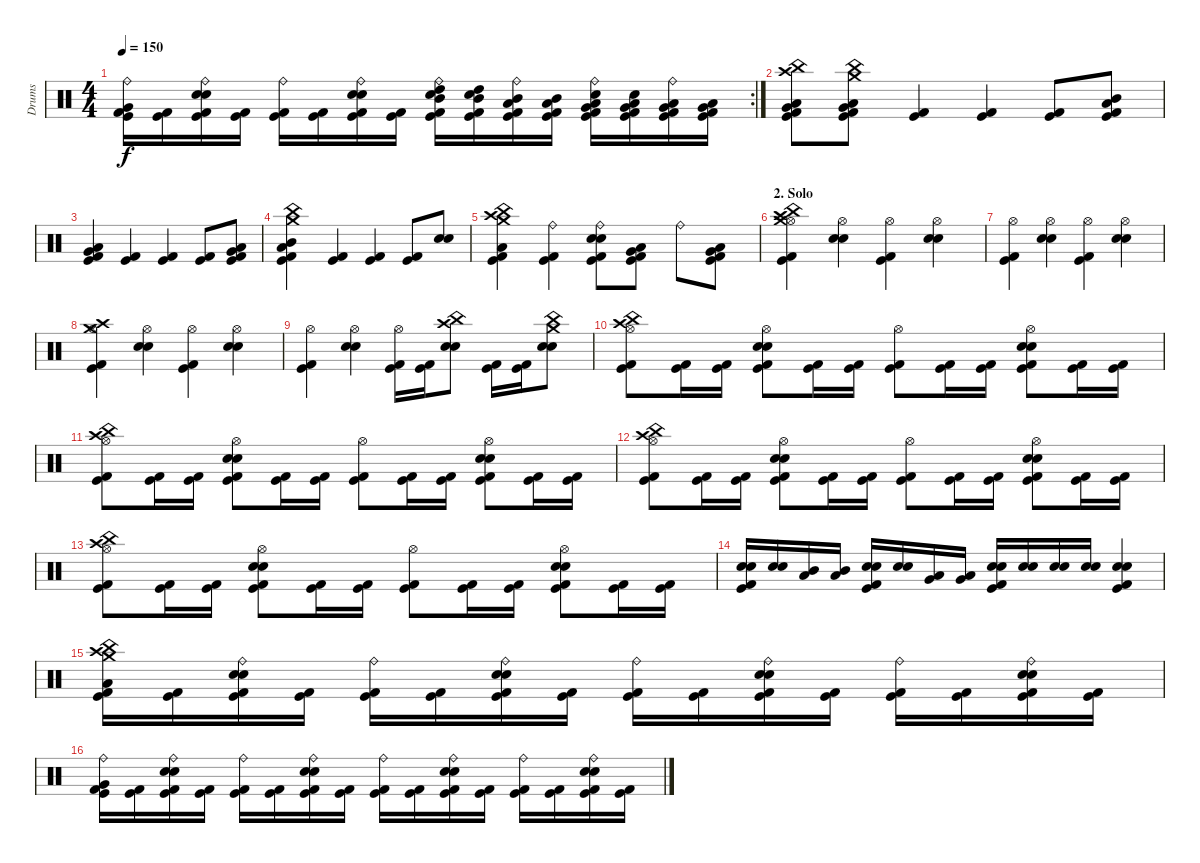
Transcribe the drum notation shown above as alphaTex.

\track ("Drums" "Drums") {instrument percussion}
\staff {score}
\articulation defaults
\rc 2
\ts (4 4)
\tempo 150
\clef neutral
\ks c
("Ride (bell)" "Very Low Tom (hit)" "Kick (hit) 2" "Kick (hit)").16{dy f} ("Kick (hit) 2" "Kick (hit)").16 ("Ride (bell)" "Snare (hit) 2" "Electric Snare (hit)" "Kick (hit) 2" "Kick (hit)").16 ("Kick (hit) 2" "Kick (hit)").16 ("Ride (bell)" "Kick (hit) 2" "Kick (hit)").16 ("Kick (hit) 2" "Kick (hit)").16 ("Ride (bell)" "Snare (hit) 2" "Electric Snare (hit)" "Kick (hit)" "Kick (hit) 2").16 ("Kick (hit) 2" "Kick (hit)").16 ("Electric Snare (hit)" "Ride (bell)" "High Tom (hit)" "Mid Tom (hit)" "Kick (hit) 2" "Kick (hit)").16 ("Electric Snare (hit)" "High Tom (hit)" "Mid Tom (hit)" "Kick (hit) 2" "Kick (hit)").16 ("Ride (bell)" "Mid Tom (hit)" "Low Tom (hit)" "Kick (hit) 2" "Kick (hit)").16 ("Mid Tom (hit)" "Low Tom (hit)" "Kick (hit) 2" "Kick (hit)").16 ("Snare (hit) 2" "Ride (bell)" "Low Tom (hit)" "Very Low Tom (hit)" "Kick (hit) 2" "Kick (hit)").16 ("Snare (hit) 2" "Low Tom (hit)" "Very Low Tom (hit)" "Kick (hit) 2" "Kick (hit)").16 ("Ride (bell)" "Very Low Tom (hit)" "Low Floor Tom (hit)" "Kick (hit)" "Kick (hit) 2").16 ("Very Low Tom (hit)" "Low Floor Tom (hit)" "Kick (hit) 2" "Kick (hit)").16 |
("Crash high (hit)" "China (hit)" "Low Tom (hit)" "Very Low Tom (hit)" "Kick (hit) 2" "Kick (hit)").8 ("Crash medium (hit)" "China (hit)" "Low Tom (hit)" "Very Low Tom (hit)" "Kick (hit) 2" "Kick (hit)").8 ("Kick (hit) 2" "Kick (hit)").4 ("Kick (hit) 2" "Kick (hit)").4 ("Kick (hit) 2" "Kick (hit)").8 ("Mid Tom (hit)" "Low Tom (hit)" "Kick (hit)" "Kick (hit) 2").8 |
("Very Low Tom (hit)" "Low Tom (hit)" "Kick (hit)" "Kick (hit) 2").4 ("Kick (hit) 2" "Kick (hit)").4 ("Kick (hit)" "Kick (hit) 2").4 ("Kick (hit) 2" "Kick (hit)").8 ("Very Low Tom (hit)" "Low Tom (hit)" "Kick (hit) 2" "Kick (hit)").8 |
("Crash medium (hit)" "China (hit)" "Mid Tom (hit)" "Low Tom (hit)" "Kick (hit)" "Kick (hit) 2").4 ("Kick (hit) 2" "Kick (hit)").4 ("Kick (hit) 2" "Kick (hit)").4 ("Kick (hit)" "Kick (hit) 2").8 ("Electric Snare (hit)" "Snare (hit) 2").8 |
("Crash high (hit)" "Crash medium (hit)" "China (hit)" "Low Tom (hit)" "Kick (hit) 2" "Kick (hit)").4 ("Ride (bell)" "Kick (hit)" "Kick (hit) 2").4 ("Ride (bell)" "Kick (hit) 2" "Snare (hit) 2" "Electric Snare (hit)" "Kick (hit)").8 ("Very Low Tom (hit)" "Low Tom (hit)" "Kick (hit) 2" "Kick (hit)").8 "Ride (bell)".8 ("Very Low Tom (hit)" "Low Tom (hit)" "Kick (hit) 2" "Kick (hit)").8 |
\section ("" "2. Solo")
("Crash high (hit)" "Hi-Hat (open)" "Crash medium (hit)" "China (hit)" "Kick (hit) 2" "Kick (hit)").4 ("Hi-Hat (open)" "Electric Snare (hit)" "Snare (hit) 2").4 ("Hi-Hat (open)" "Kick (hit) 2" "Kick (hit)").4 ("Hi-Hat (open)" "Electric Snare (hit)" "Snare (hit) 2").4 |
("Hi-Hat (open)" "Kick (hit)" "Kick (hit) 2").4 ("Hi-Hat (open)" "Electric Snare (hit)" "Snare (hit) 2").4 ("Hi-Hat (open)" "Kick (hit) 2" "Kick (hit)").4 ("Hi-Hat (open)" "Electric Snare (hit)" "Snare (hit) 2").4 |
("Crash high (hit)" "Hi-Hat (open)" "Crash medium (hit)" "Kick (hit)" "Kick (hit) 2").4 ("Hi-Hat (open)" "Electric Snare (hit)" "Snare (hit) 2").4 ("Hi-Hat (open)" "Kick (hit) 2" "Kick (hit)").4 ("Hi-Hat (open)" "Electric Snare (hit)" "Snare (hit) 2").4 |
("Hi-Hat (open)" "Kick (hit)" "Kick (hit) 2").4 ("Hi-Hat (open)" "Electric Snare (hit)" "Snare (hit) 2").4 ("Hi-Hat (open)" "Kick (hit)" "Kick (hit) 2").16 ("Kick (hit) 2" "Kick (hit)").16 ("China (hit)" "Crash high (hit)" "Electric Snare (hit)" "Snare (hit) 2").8 ("Kick (hit) 2" "Kick (hit)").16 ("Kick (hit) 2" "Kick (hit)").16 ("Crash medium (hit)" "China (hit)" "Electric Snare (hit)" "Snare (hit) 2").8 |
("Crash high (hit)" "Hi-Hat (open)" "China (hit)" "Kick (hit) 2" "Kick (hit)").8 ("Kick (hit) 2" "Kick (hit)").16 ("Kick (hit) 2" "Kick (hit)").16 ("Hi-Hat (open)" "Snare (hit) 2" "Electric Snare (hit)" "Kick (hit) 2" "Kick (hit)").8 ("Kick (hit) 2" "Kick (hit)").16 ("Kick (hit) 2" "Kick (hit)").16 ("Hi-Hat (open)" "Kick (hit) 2" "Kick (hit)").8 ("Kick (hit) 2" "Kick (hit)").16 ("Kick (hit) 2" "Kick (hit)").16 ("Hi-Hat (open)" "Electric Snare (hit)" "Snare (hit) 2" "Kick (hit) 2" "Kick (hit)").8 ("Kick (hit) 2" "Kick (hit)").16 ("Kick (hit) 2" "Kick (hit)").16 |
("Crash high (hit)" "Hi-Hat (open)" "China (hit)" "Kick (hit) 2" "Kick (hit)").8 ("Kick (hit) 2" "Kick (hit)").16 ("Kick (hit) 2" "Kick (hit)").16 ("Hi-Hat (open)" "Snare (hit) 2" "Electric Snare (hit)" "Kick (hit) 2" "Kick (hit)").8 ("Kick (hit) 2" "Kick (hit)").16 ("Kick (hit) 2" "Kick (hit)").16 ("Hi-Hat (open)" "Kick (hit) 2" "Kick (hit)").8 ("Kick (hit) 2" "Kick (hit)").16 ("Kick (hit) 2" "Kick (hit)").16 ("Hi-Hat (open)" "Electric Snare (hit)" "Snare (hit) 2" "Kick (hit) 2" "Kick (hit)").8 ("Kick (hit) 2" "Kick (hit)").16 ("Kick (hit) 2" "Kick (hit)").16 |
("Crash high (hit)" "Hi-Hat (open)" "China (hit)" "Kick (hit) 2" "Kick (hit)").8 ("Kick (hit) 2" "Kick (hit)").16 ("Kick (hit) 2" "Kick (hit)").16 ("Hi-Hat (open)" "Snare (hit) 2" "Electric Snare (hit)" "Kick (hit) 2" "Kick (hit)").8 ("Kick (hit) 2" "Kick (hit)").16 ("Kick (hit) 2" "Kick (hit)").16 ("Hi-Hat (open)" "Kick (hit) 2" "Kick (hit)").8 ("Kick (hit) 2" "Kick (hit)").16 ("Kick (hit) 2" "Kick (hit)").16 ("Hi-Hat (open)" "Electric Snare (hit)" "Snare (hit) 2" "Kick (hit) 2" "Kick (hit)").8 ("Kick (hit) 2" "Kick (hit)").16 ("Kick (hit) 2" "Kick (hit)").16 |
("Crash high (hit)" "Hi-Hat (open)" "China (hit)" "Kick (hit) 2" "Kick (hit)").8 ("Kick (hit) 2" "Kick (hit)").16 ("Kick (hit) 2" "Kick (hit)").16 ("Hi-Hat (open)" "Snare (hit) 2" "Electric Snare (hit)" "Kick (hit) 2" "Kick (hit)").8 ("Kick (hit) 2" "Kick (hit)").16 ("Kick (hit) 2" "Kick (hit)").16 ("Hi-Hat (open)" "Kick (hit) 2" "Kick (hit)").8 ("Kick (hit) 2" "Kick (hit)").16 ("Kick (hit) 2" "Kick (hit)").16 ("Hi-Hat (open)" "Electric Snare (hit)" "Snare (hit) 2" "Kick (hit) 2" "Kick (hit)").8 ("Kick (hit) 2" "Kick (hit)").16 ("Kick (hit) 2" "Kick (hit)").16 |
("Electric Snare (hit)" "Snare (hit) 2" "Kick (hit) 2" "Kick (hit)").16 ("Electric Snare (hit)" "Snare (hit) 2").16 ("Low Tom (hit)" "Mid Tom (hit)").16 ("Low Tom (hit)" "Mid Tom (hit)").16 ("Electric Snare (hit)" "Snare (hit) 2" "Kick (hit)" "Kick (hit) 2").16 ("Electric Snare (hit)" "Snare (hit) 2").16 ("Very Low Tom (hit)" "Low Tom (hit)").16 ("Very Low Tom (hit)" "Low Tom (hit)").16 ("Electric Snare (hit)" "Snare (hit) 2" "Kick (hit) 2" "Kick (hit)").16 ("Electric Snare (hit)" "Snare (hit) 2").16 ("Electric Snare (hit)" "Snare (hit) 2").16 ("Electric Snare (hit)" "Snare (hit) 2").16 ("Electric Snare (hit)" "Snare (hit) 2" "Kick (hit)" "Kick (hit) 2").4 |
("Crash high (hit)" "China (hit)" "Crash medium (hit)" "Low Tom (hit)" "Kick (hit) 2" "Kick (hit)").16 ("Kick (hit) 2" "Kick (hit)").16 ("Ride (bell)" "Snare (hit) 2" "Electric Snare (hit)" "Kick (hit) 2" "Kick (hit)").16 ("Kick (hit) 2" "Kick (hit)").16 ("Ride (bell)" "Kick (hit) 2" "Kick (hit)").16 ("Kick (hit) 2" "Kick (hit)").16 ("Ride (bell)" "Snare (hit) 2" "Electric Snare (hit)" "Kick (hit)" "Kick (hit) 2").16 ("Kick (hit) 2" "Kick (hit)").16 ("Ride (bell)" "Kick (hit) 2" "Kick (hit)").16 ("Kick (hit) 2" "Kick (hit)").16 ("Ride (bell)" "Snare (hit) 2" "Electric Snare (hit)" "Kick (hit) 2" "Kick (hit)").16 ("Kick (hit) 2" "Kick (hit)").16 ("Ride (bell)" "Kick (hit) 2" "Kick (hit)").16 ("Kick (hit) 2" "Kick (hit)").16 ("Ride (bell)" "Snare (hit) 2" "Electric Snare (hit)" "Kick (hit)" "Kick (hit) 2").16 ("Kick (hit) 2" "Kick (hit)").16 |
("Ride (bell)" "Very Low Tom (hit)" "Kick (hit) 2" "Kick (hit)").16 ("Kick (hit) 2" "Kick (hit)").16 ("Ride (bell)" "Snare (hit) 2" "Electric Snare (hit)" "Kick (hit) 2" "Kick (hit)").16 ("Kick (hit) 2" "Kick (hit)").16 ("Ride (bell)" "Kick (hit) 2" "Kick (hit)").16 ("Kick (hit) 2" "Kick (hit)").16 ("Ride (bell)" "Snare (hit) 2" "Electric Snare (hit)" "Kick (hit)" "Kick (hit) 2").16 ("Kick (hit) 2" "Kick (hit)").16 ("Ride (bell)" "Kick (hit) 2" "Kick (hit)").16 ("Kick (hit) 2" "Kick (hit)").16 ("Ride (bell)" "Snare (hit) 2" "Electric Snare (hit)" "Kick (hit) 2" "Kick (hit)").16 ("Kick (hit) 2" "Kick (hit)").16 ("Ride (bell)" "Kick (hit) 2" "Kick (hit)").16 ("Kick (hit) 2" "Kick (hit)").16 ("Ride (bell)" "Snare (hit) 2" "Electric Snare (hit)" "Kick (hit)" "Kick (hit) 2").16 ("Kick (hit) 2" "Kick (hit)").16
